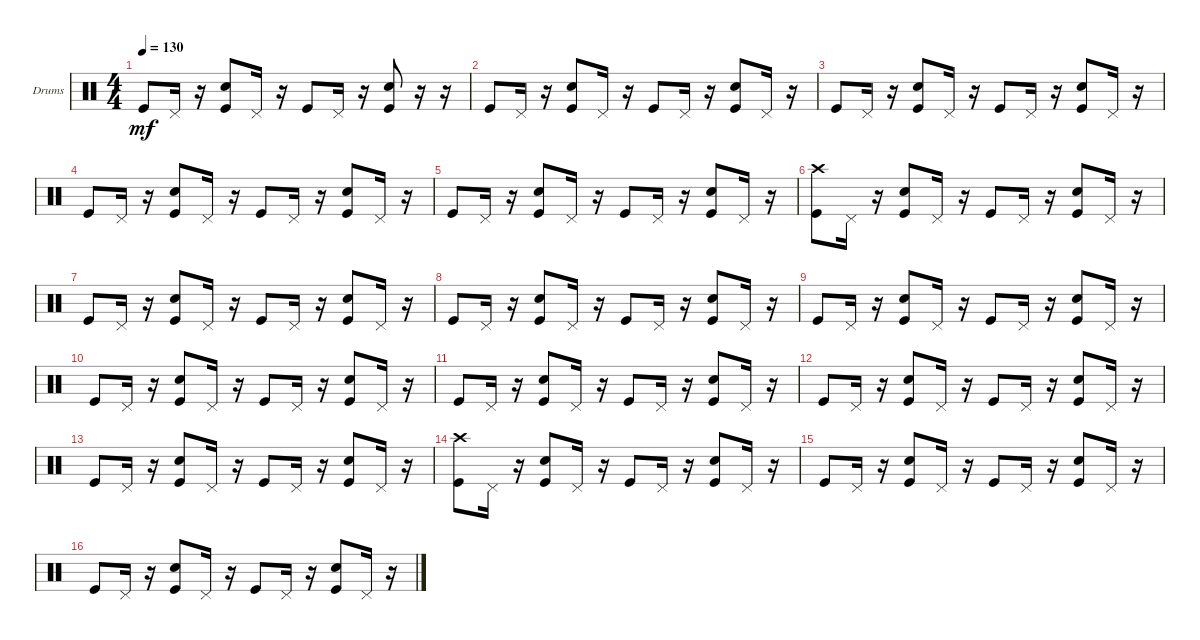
\bracketExtendMode groupsimilarinstruments
\firstSystemTrackNameOrientation horizontal
\otherSystemsTrackNameOrientation horizontal
\track ("MIDI Drums" "Drums") {instrument percussion}
\staff {score}
\articulation defaults
\ts (4 4)
\tempo 130
\clef neutral
\ks c "Kick (hit)".8{dy mf} "Pedal Hi-Hat (hit)".16
r.16 ("Snare (hit) 2" "Kick (hit)").8 "Pedal Hi-Hat (hit)".16 r.16 "Kick (hit)".8 "Pedal Hi-Hat (hit)".16 r.16 ("Snare (hit) 2" "Kick (hit)").8 r.16 r.16 |
"Kick (hit)".8 "Pedal Hi-Hat (hit)".16 r.16 ("Snare (hit) 2" "Kick (hit)").8 "Pedal Hi-Hat (hit)".16 r.16 "Kick (hit)".8 "Pedal Hi-Hat (hit)".16 r.16 ("Snare (hit) 2" "Kick (hit)").8 "Pedal Hi-Hat (hit)".16 r.16 |
"Kick (hit)".8 "Pedal Hi-Hat (hit)".16 r.16 ("Snare (hit) 2" "Kick (hit)").8 "Pedal Hi-Hat (hit)".16 r.16 "Kick (hit)".8 "Pedal Hi-Hat (hit)".16 r.16 ("Kick (hit)" "Snare (hit) 2").8 "Pedal Hi-Hat (hit)".16 r.16 |
"Kick (hit)".8 "Pedal Hi-Hat (hit)".16 r.16 ("Snare (hit) 2" "Kick (hit)").8 "Pedal Hi-Hat (hit)".16 r.16 "Kick (hit)".8 "Pedal Hi-Hat (hit)".16 r.16 ("Snare (hit) 2" "Kick (hit)").8 "Pedal Hi-Hat (hit)".16 r.16 |
"Kick (hit)".8 "Pedal Hi-Hat (hit)".16 r.16 ("Snare (hit) 2" "Kick (hit)").8 "Pedal Hi-Hat (hit)".16 r.16 "Kick (hit)".8 "Pedal Hi-Hat (hit)".16 r.16 ("Kick (hit)" "Snare (hit) 2").8 "Pedal Hi-Hat (hit)".16 r.16 |
("Crash high (hit)" "Kick (hit)").8 "Pedal Hi-Hat (hit)".16 r.16 ("Snare (hit) 2" "Kick (hit)").8 "Pedal Hi-Hat (hit)".16 r.16 "Kick (hit)".8 "Pedal Hi-Hat (hit)".16 r.16 ("Kick (hit)" "Snare (hit) 2").8 "Pedal Hi-Hat (hit)".16 r.16 |
"Kick (hit)".8 "Pedal Hi-Hat (hit)".16 r.16 ("Snare (hit) 2" "Kick (hit)").8 "Pedal Hi-Hat (hit)".16 r.16 "Kick (hit)".8 "Pedal Hi-Hat (hit)".16 r.16 ("Kick (hit)" "Snare (hit) 2").8 "Pedal Hi-Hat (hit)".16 r.16 |
"Kick (hit)".8 "Pedal Hi-Hat (hit)".16 r.16 ("Snare (hit) 2" "Kick (hit)").8 "Pedal Hi-Hat (hit)".16 r.16 "Kick (hit)".8 "Pedal Hi-Hat (hit)".16 r.16 ("Snare (hit) 2" "Kick (hit)").8 "Pedal Hi-Hat (hit)".16 r.16 |
"Kick (hit)".8 "Pedal Hi-Hat (hit)".16 r.16 ("Snare (hit) 2" "Kick (hit)").8 "Pedal Hi-Hat (hit)".16 r.16 "Kick (hit)".8 "Pedal Hi-Hat (hit)".16 r.16 ("Kick (hit)" "Snare (hit) 2").8 "Pedal Hi-Hat (hit)".16 r.16 |
"Kick (hit)".8 "Pedal Hi-Hat (hit)".16 r.16 ("Snare (hit) 2" "Kick (hit)").8 "Pedal Hi-Hat (hit)".16 r.16 "Kick (hit)".8 "Pedal Hi-Hat (hit)".16 r.16 ("Snare (hit) 2" "Kick (hit)").8 "Pedal Hi-Hat (hit)".16 r.16 |
"Kick (hit)".8 "Pedal Hi-Hat (hit)".16 r.16 ("Snare (hit) 2" "Kick (hit)").8 "Pedal Hi-Hat (hit)".16 r.16 "Kick (hit)".8 "Pedal Hi-Hat (hit)".16 r.16 ("Kick (hit)" "Snare (hit) 2").8 "Pedal Hi-Hat (hit)".16 r.16 |
"Kick (hit)".8 "Pedal Hi-Hat (hit)".16 r.16 ("Snare (hit) 2" "Kick (hit)").8 "Pedal Hi-Hat (hit)".16 r.16 "Kick (hit)".8 "Pedal Hi-Hat (hit)".16 r.16 ("Snare (hit) 2" "Kick (hit)").8 "Pedal Hi-Hat (hit)".16 r.16 |
"Kick (hit)".8 "Pedal Hi-Hat (hit)".16 r.16 ("Snare (hit) 2" "Kick (hit)").8 "Pedal Hi-Hat (hit)".16 r.16 "Kick (hit)".8 "Pedal Hi-Hat (hit)".16 r.16 ("Kick (hit)" "Snare (hit) 2").8 "Pedal Hi-Hat (hit)".16 r.16 |
("Crash high (hit)" "Kick (hit)").8 "Pedal Hi-Hat (hit)".16 r.16 ("Snare (hit) 2" "Kick (hit)").8 "Pedal Hi-Hat (hit)".16 r.16 "Kick (hit)".8 "Pedal Hi-Hat (hit)".16 r.16 ("Kick (hit)" "Snare (hit) 2").8 "Pedal Hi-Hat (hit)".16 r.16 |
"Kick (hit)".8 "Pedal Hi-Hat (hit)".16 r.16 ("Snare (hit) 2" "Kick (hit)").8 "Pedal Hi-Hat (hit)".16 r.16 "Kick (hit)".8 "Pedal Hi-Hat (hit)".16 r.16 ("Kick (hit)" "Snare (hit) 2").8 "Pedal Hi-Hat (hit)".16 r.16 |
"Kick (hit)".8 "Pedal Hi-Hat (hit)".16 r.16 ("Snare (hit) 2" "Kick (hit)").8 "Pedal Hi-Hat (hit)".16 r.16 "Kick (hit)".8 "Pedal Hi-Hat (hit)".16 r.16 ("Snare (hit) 2" "Kick (hit)").8 "Pedal Hi-Hat (hit)".16 r.16
